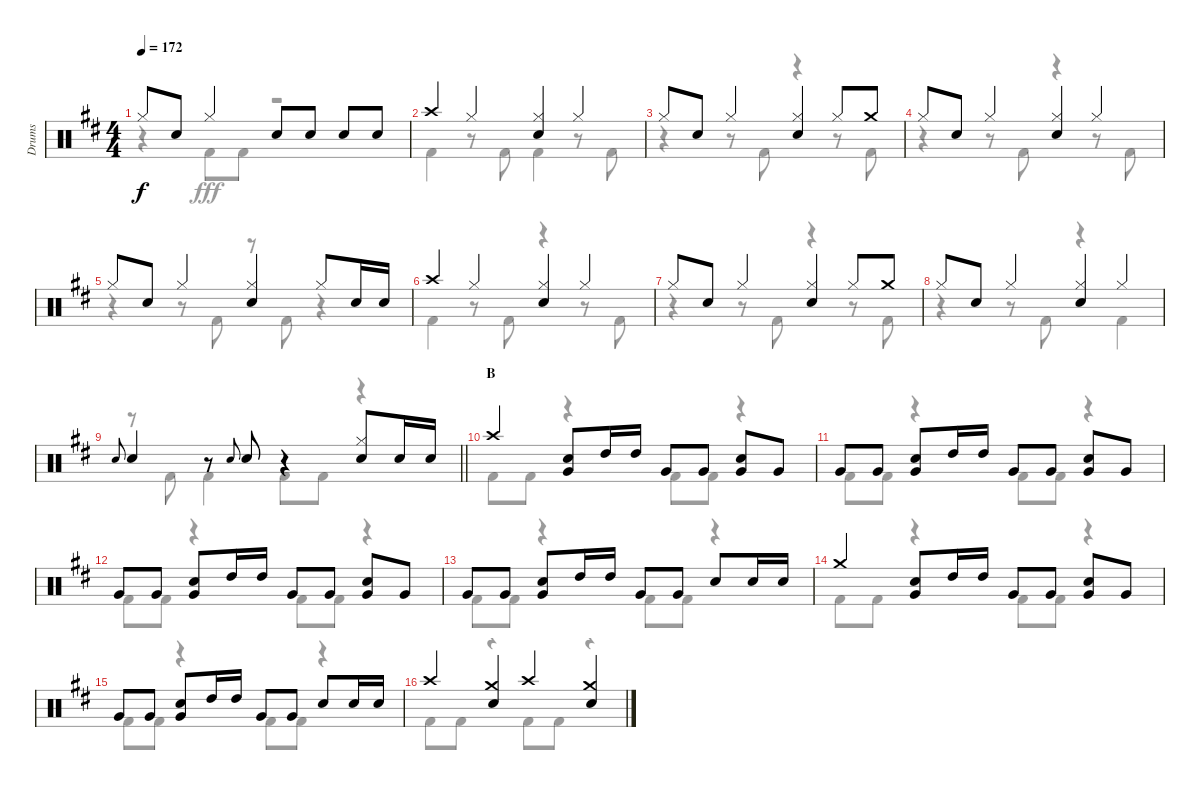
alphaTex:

\track ("Drums" "Drums") {instrument percussion}
\staff {score}
\articulation defaults
\voice
\ts (4 4)
\tempo 172
\clef neutral
\ks d "Hi-Hat (closed)".8{dy f} "Snare (hit) 2".8 "Hi-Hat (closed)".4 "Snare (hit) 2".8 "Snare (hit) 2".8 "Snare (hit) 2".8 "Snare (hit) 2".8
|
"Crash high (hit)".4 "Hi-Hat (closed)".4 ("Hi-Hat (closed)" "Snare (hit) 2").4 "Hi-Hat (closed)".4 |
"Hi-Hat (closed)".8 "Snare (hit) 2".8 "Hi-Hat (closed)".4 ("Hi-Hat (closed)" "Snare (hit) 2").4 "Hi-Hat (closed)".8 "Crash medium (hit)".8 |
"Hi-Hat (closed)".8 "Snare (hit) 2".8 "Hi-Hat (closed)".4 ("Hi-Hat (closed)" "Snare (hit) 2").4 "Hi-Hat (closed)".4 |
"Hi-Hat (closed)".8 "Snare (hit) 2".8 "Hi-Hat (closed)".4 ("Hi-Hat (closed)" "Snare (hit) 2").4 "Hi-Hat (closed)".8 "Snare (hit) 2".16 "Snare (hit) 2".16 |
"Crash high (hit)".4 "Hi-Hat (closed)".4 ("Hi-Hat (closed)" "Snare (hit) 2").4 "Hi-Hat (closed)".4 |
"Hi-Hat (closed)".8 "Snare (hit) 2".8 "Hi-Hat (closed)".4 ("Hi-Hat (closed)" "Snare (hit) 2").4 "Hi-Hat (closed)".8 "Crash medium (hit)".8 |
"Hi-Hat (closed)".8 "Snare (hit) 2".8 "Hi-Hat (closed)".4 ("Hi-Hat (closed)" "Snare (hit) 2").4 "Hi-Hat (closed)".4 |
\barLineRight lightlight "Snare (hit) 2".8{gr onbeat} "Snare (hit) 2".4
r.8 "Snare (hit) 2".8{gr onbeat} "Snare (hit) 2".8 r.4 ("Hi-Hat (closed)" "Snare (hit) 2").8 "Snare (hit) 2".16 "Snare (hit) 2".16 |
\section ("" "B")
"Crash high (hit)".4 ("Snare (hit) 2" "Very Low Tom (hit)").8 "High Tom (hit)".16 "High Tom (hit)".16 "Very Low Tom (hit)".8 "Very Low Tom (hit)".8 ("Snare (hit) 2" "Very Low Tom (hit)").8 "Very Low Tom (hit)".8 |
"Very Low Tom (hit)".8 "Very Low Tom (hit)".8 ("Snare (hit) 2" "Very Low Tom (hit)").8 "High Tom (hit)".16 "High Tom (hit)".16 "Very Low Tom (hit)".8 "Very Low Tom (hit)".8 ("Snare (hit) 2" "Very Low Tom (hit)").8 "Very Low Tom (hit)".8 |
"Very Low Tom (hit)".8 "Very Low Tom (hit)".8 ("Snare (hit) 2" "Very Low Tom (hit)").8 "High Tom (hit)".16 "High Tom (hit)".16 "Very Low Tom (hit)".8 "Very Low Tom (hit)".8 ("Snare (hit) 2" "Very Low Tom (hit)").8 "Very Low Tom (hit)".8 |
"Very Low Tom (hit)".8 "Very Low Tom (hit)".8 ("Snare (hit) 2" "Very Low Tom (hit)").8 "High Tom (hit)".16 "High Tom (hit)".16 "Very Low Tom (hit)".8 "Very Low Tom (hit)".8 "Snare (hit) 2".8 "Snare (hit) 2".16 "Snare (hit) 2".16 |
"Crash medium (hit)".4 ("Snare (hit) 2" "Very Low Tom (hit)").8 "High Tom (hit)".16 "High Tom (hit)".16 "Very Low Tom (hit)".8 "Very Low Tom (hit)".8 ("Snare (hit) 2" "Very Low Tom (hit)").8 "Very Low Tom (hit)".8 |
"Very Low Tom (hit)".8 "Very Low Tom (hit)".8 ("Snare (hit) 2" "Very Low Tom (hit)").8 "High Tom (hit)".16 "High Tom (hit)".16 "Very Low Tom (hit)".8 "Very Low Tom (hit)".8 "Snare (hit) 2".8 "Snare (hit) 2".16 "Snare (hit) 2".16 |
"Crash high (hit)".4 ("Crash medium (hit)" "Snare (hit) 2").4 "Crash high (hit)".4 ("Crash medium (hit)" "Snare (hit) 2").4
\voice
\clef neutral
\ottava regular
\simile none
\ks d
r.4{dy fff} "Kick (hit) 2".8 "Kick (hit) 2".8 r.2 |
"Kick (hit) 2".4 r.8 "Kick (hit) 2".8 "Kick (hit) 2".4 r.8 "Kick (hit) 2".8 |
r.4 r.8 "Kick (hit) 2".8 r.4 r.8 "Kick (hit) 2".8 |
r.4 r.8 "Kick (hit) 2".8 r.4 r.8 "Kick (hit) 2".8 |
r.4 r.8 "Kick (hit) 2".8 r.8 "Kick (hit) 2".8 r.4 |
"Kick (hit) 2".4 r.8 "Kick (hit) 2".8 r.4 r.8 "Kick (hit) 2".8 |
r.4 r.8 "Kick (hit) 2".8 r.4 r.8 "Kick (hit) 2".8 |
r.4 r.8 "Kick (hit) 2".8 r.4 "Kick (hit) 2".4 |
\barLineRight lightlight
r.8 "Kick (hit) 2".8 "Kick (hit) 2".4 "Kick (hit) 2".8 "Kick (hit) 2".8 r.4 |
"Kick (hit) 2".8 "Kick (hit) 2".8 r.4 "Kick (hit) 2".8 "Kick (hit) 2".8 r.4 |
"Kick (hit) 2".8 "Kick (hit) 2".8 r.4 "Kick (hit) 2".8 "Kick (hit) 2".8 r.4 |
"Kick (hit) 2".8 "Kick (hit) 2".8 r.4 "Kick (hit) 2".8 "Kick (hit) 2".8 r.4 |
"Kick (hit) 2".8 "Kick (hit) 2".8 r.4 "Kick (hit) 2".8 "Kick (hit) 2".8 r.4 |
"Kick (hit) 2".8 "Kick (hit) 2".8 r.4 "Kick (hit) 2".8 "Kick (hit) 2".8 r.4 |
"Kick (hit) 2".8 "Kick (hit) 2".8 r.4 "Kick (hit) 2".8 "Kick (hit) 2".8 r.4 |
"Kick (hit) 2".8 "Kick (hit) 2".8 r.4 "Kick (hit) 2".8 "Kick (hit) 2".8 r.4
